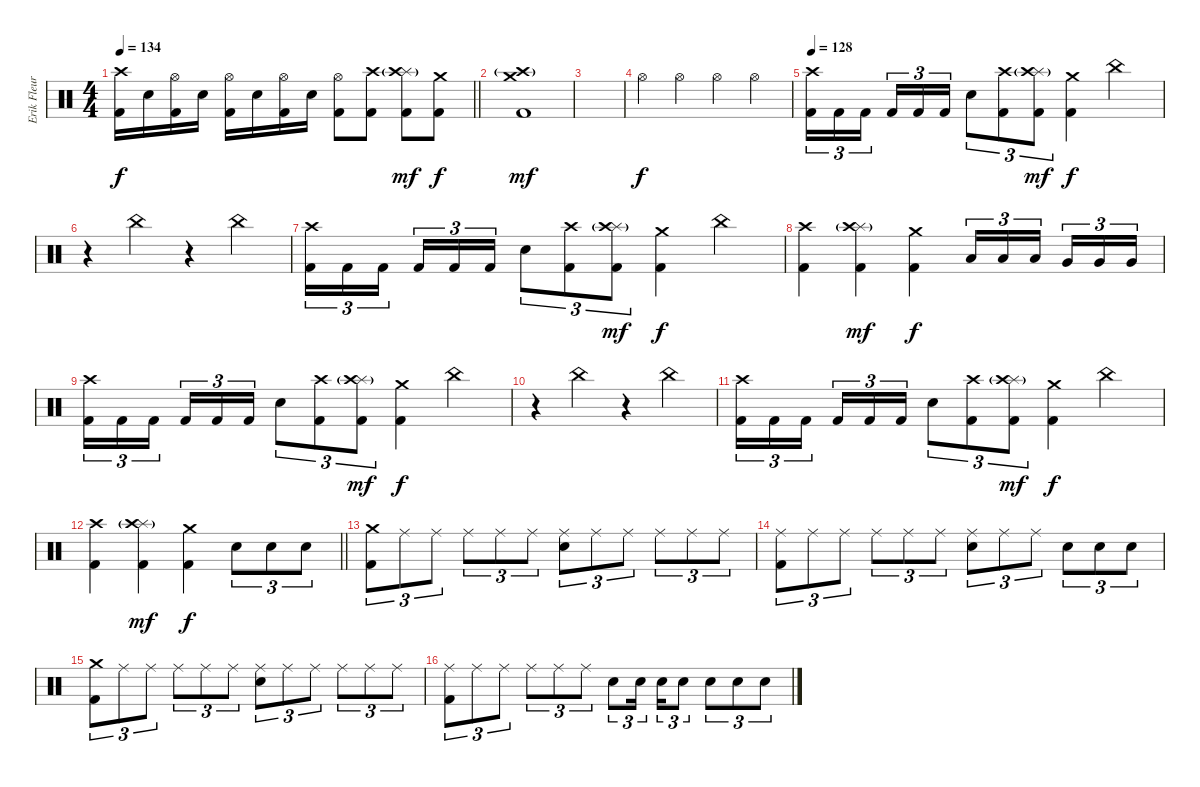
\track ("Erik Fleuren" "Erik Fleur") {instrument percussion}
\staff {score}
\articulation defaults
\ts (4 4)
\tempo 134
\clef neutral
\barLineRight lightlight
\ks c
("Crash high (hit)" "Kick (hit) 2").16{dy f} "Electric Snare (hit)".16 ("Hi-Hat (open)" "Kick (hit) 2").16 "Electric Snare (hit)".16 ("Hi-Hat (open)" "Kick (hit) 2").16 "Electric Snare (hit)".16 ("Hi-Hat (open)" "Kick (hit) 2").16 "Electric Snare (hit)".16 ("Hi-Hat (open)" "Kick (hit) 2").8 ("Crash high (hit)" "Kick (hit) 2").8 ("Splash (hit)"{g} "Crash high (hit)" "Kick (hit) 2").8{dy mf} ("Crash medium (hit)" "Kick (hit) 2").8{dy f} |
("Crash medium (hit)" "Crash high (hit)"{g} "Kick (hit) 2").1{dy mf} |
|
"Hi-Hat (open)".4{dy f} "Hi-Hat (open)".4 "Hi-Hat (open)".4 "Hi-Hat (open)".4 |
\tempo 128
("Crash high (hit)" "Kick (hit) 2").16{tu (3 2)} "Kick (hit) 2".16{tu (3 2)} "Kick (hit) 2".16{tu (3 2) beam splitsecondary} "Kick (hit) 2".16{tu (3 2)} "Kick (hit) 2".16{tu (3 2)} "Kick (hit) 2".16{tu (3 2)} "Electric Snare (hit)".8{tu (3 2)} ("Crash high (hit)" "Kick (hit) 2").8{tu (3 2)} ("Splash (hit)"{g} "Crash high (hit)" "Kick (hit) 2").8{tu (3 2) dy mf} ("Crash medium (hit)" "Kick (hit) 2").4{dy f} "China (hit)".4 |
r.4 "China (hit)".4 r.4 "China (hit)".4 |
("Crash high (hit)" "Kick (hit) 2").16{tu (3 2)} "Kick (hit) 2".16{tu (3 2)} "Kick (hit) 2".16{tu (3 2) beam splitsecondary} "Kick (hit) 2".16{tu (3 2)} "Kick (hit) 2".16{tu (3 2)} "Kick (hit) 2".16{tu (3 2)} "Electric Snare (hit)".8{tu (3 2)} ("Crash high (hit)" "Kick (hit) 2").8{tu (3 2)} ("Splash (hit)"{g} "Crash high (hit)" "Kick (hit) 2").8{tu (3 2) dy mf} ("Crash medium (hit)" "Kick (hit) 2").4{dy f} "China (hit)".4 |
("Crash high (hit)" "Kick (hit) 2").4 ("Splash (hit)"{g} "Crash high (hit)" "Kick (hit) 2").4{dy mf} ("Crash medium (hit)" "Kick (hit) 2").4{dy f} "Low Tom (hit)".16{tu (3 2)} "Low Tom (hit)".16{tu (3 2)} "Low Tom (hit)".16{tu (3 2) beam splitsecondary} "Very Low Tom (hit)".16{tu (3 2)} "Very Low Tom (hit)".16{tu (3 2)} "Very Low Tom (hit)".16{tu (3 2)} |
("Crash high (hit)" "Kick (hit) 2").16{tu (3 2)} "Kick (hit) 2".16{tu (3 2)} "Kick (hit) 2".16{tu (3 2) beam splitsecondary} "Kick (hit) 2".16{tu (3 2)} "Kick (hit) 2".16{tu (3 2)} "Kick (hit) 2".16{tu (3 2)} "Electric Snare (hit)".8{tu (3 2)} ("Crash high (hit)" "Kick (hit) 2").8{tu (3 2)} ("Splash (hit)"{g} "Crash high (hit)" "Kick (hit) 2").8{tu (3 2) dy mf} ("Crash medium (hit)" "Kick (hit) 2").4{dy f} "China (hit)".4 |
r.4 "China (hit)".4 r.4 "China (hit)".4 |
("Crash high (hit)" "Kick (hit) 2").16{tu (3 2)} "Kick (hit) 2".16{tu (3 2)} "Kick (hit) 2".16{tu (3 2) beam splitsecondary} "Kick (hit) 2".16{tu (3 2)} "Kick (hit) 2".16{tu (3 2)} "Kick (hit) 2".16{tu (3 2)} "Electric Snare (hit)".8{tu (3 2)} ("Crash high (hit)" "Kick (hit) 2").8{tu (3 2)} ("Splash (hit)"{g} "Crash high (hit)" "Kick (hit) 2").8{tu (3 2) dy mf} ("Crash medium (hit)" "Kick (hit) 2").4{dy f} "China (hit)".4 |
\barLineRight lightlight
("Crash high (hit)" "Kick (hit) 2").4 ("Splash (hit)"{g} "Crash high (hit)" "Kick (hit) 2").4{dy mf} ("Crash medium (hit)" "Kick (hit) 2").4{dy f} "Electric Snare (hit)".8{tu (3 2)} "Electric Snare (hit)".8{tu (3 2)} "Electric Snare (hit)".8{tu (3 2)} |
("Crash medium (hit)" "Kick (hit) 2").8{tu (3 2)} "Ride (middle)".8{tu (3 2)} "Ride (middle)".8{tu (3 2)} "Ride (middle)".8{tu (3 2)} "Ride (middle)".8{tu (3 2)} "Ride (middle)".8{tu (3 2)} ("Ride (middle)" "Electric Snare (hit)").8{tu (3 2)} "Ride (middle)".8{tu (3 2)} "Ride (middle)".8{tu (3 2)} "Ride (middle)".8{tu (3 2)} "Ride (middle)".8{tu (3 2)} "Ride (middle)".8{tu (3 2)} |
("Ride (middle)" "Kick (hit) 2").8{tu (3 2)} "Ride (middle)".8{tu (3 2)} "Ride (middle)".8{tu (3 2)} "Ride (middle)".8{tu (3 2)} "Ride (middle)".8{tu (3 2)} "Ride (middle)".8{tu (3 2)} ("Ride (middle)" "Electric Snare (hit)").8{tu (3 2)} "Ride (middle)".8{tu (3 2)} "Ride (middle)".8{tu (3 2)} "Electric Snare (hit)".8{tu (3 2)} "Electric Snare (hit)".8{tu (3 2)} "Electric Snare (hit)".8{tu (3 2)} |
("Crash medium (hit)" "Kick (hit) 2").8{tu (3 2)} "Ride (middle)".8{tu (3 2)} "Ride (middle)".8{tu (3 2)} "Ride (middle)".8{tu (3 2)} "Ride (middle)".8{tu (3 2)} "Ride (middle)".8{tu (3 2)} ("Ride (middle)" "Electric Snare (hit)").8{tu (3 2)} "Ride (middle)".8{tu (3 2)} "Ride (middle)".8{tu (3 2)} "Ride (middle)".8{tu (3 2)} "Ride (middle)".8{tu (3 2)} "Ride (middle)".8{tu (3 2)} |
("Ride (middle)" "Kick (hit) 2").8{tu (3 2)} "Ride (middle)".8{tu (3 2)} "Ride (middle)".8{tu (3 2)} "Ride (middle)".8{tu (3 2)} "Ride (middle)".8{tu (3 2)} "Ride (middle)".8{tu (3 2)} "Electric Snare (hit)".8{tu (3 2)} "Electric Snare (hit)".16{tu (3 2) beam splitsecondary} "Electric Snare (hit)".16{tu (3 2)} "Electric Snare (hit)".8{tu (3 2)} "Electric Snare (hit)".8{tu (3 2)} "Electric Snare (hit)".8{tu (3 2)} "Electric Snare (hit)".8{tu (3 2)}
